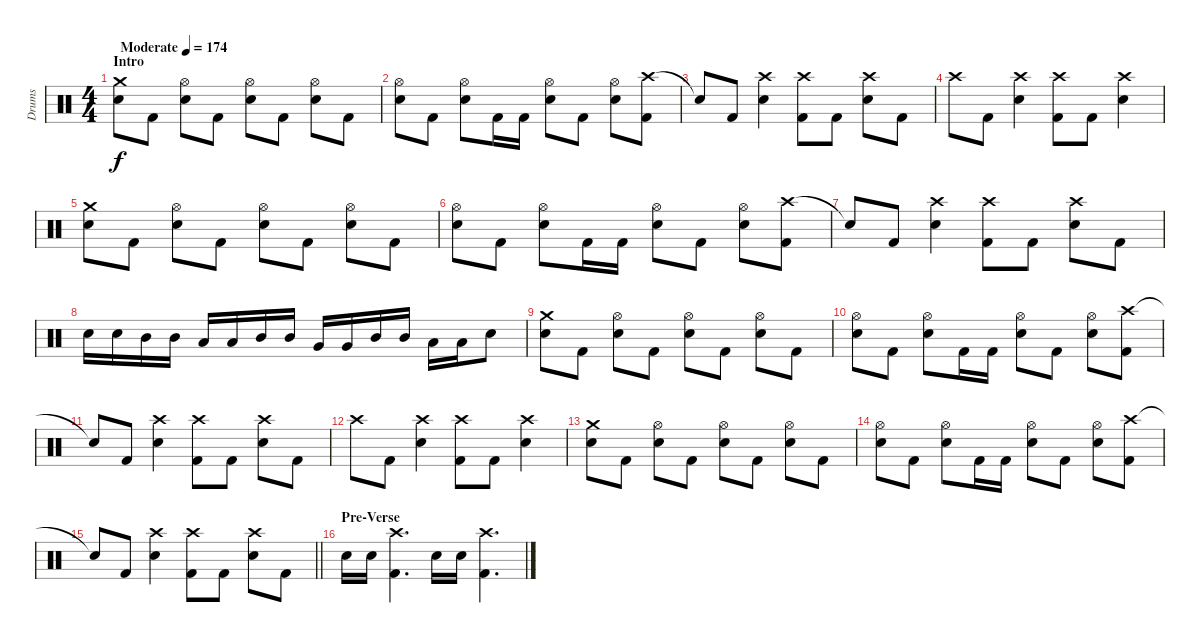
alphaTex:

\track ("Drums" "Drums") {instrument percussion}
\staff {score}
\articulation defaults
\ts (4 4)
\section ("" "Intro")
\tempo (174 "Moderate")
\clef neutral
\ks c
("Crash medium (hit)" "Electric Snare (hit)").8{dy f} "Kick (hit) 2".8 ("Hi-Hat (open)" "Electric Snare (hit)").8 "Kick (hit) 2".8 ("Hi-Hat (open)" "Electric Snare (hit)").8 "Kick (hit) 2".8 ("Hi-Hat (open)" "Electric Snare (hit)").8 "Kick (hit) 2".8 |
("Hi-Hat (open)" "Electric Snare (hit)").8 "Kick (hit) 2".8 ("Hi-Hat (open)" "Electric Snare (hit)").8 "Kick (hit) 2".16 "Kick (hit) 2".16 ("Hi-Hat (open)" "Electric Snare (hit)").8 "Kick (hit) 2".8 ("Hi-Hat (open)" "Electric Snare (hit)").8 ("Crash high (hit)" "Kick (hit) 2").8 |
"Snare (hit)"{t}.8 "Kick (hit) 2".8 ("Crash high (hit)" "Electric Snare (hit)").4 ("Crash high (hit)" "Kick (hit) 2").8 "Kick (hit) 2".8 ("Crash high (hit)" "Electric Snare (hit)").8 "Kick (hit) 2".8 |
"Crash high (hit)".8 "Kick (hit) 2".8 ("Crash high (hit)" "Electric Snare (hit)").4 ("Crash high (hit)" "Kick (hit) 2").8 "Kick (hit) 2".8 ("Crash high (hit)" "Electric Snare (hit)").4 |
("Crash medium (hit)" "Electric Snare (hit)").8 "Kick (hit) 2".8 ("Hi-Hat (open)" "Electric Snare (hit)").8 "Kick (hit) 2".8 ("Hi-Hat (open)" "Electric Snare (hit)").8 "Kick (hit) 2".8 ("Hi-Hat (open)" "Electric Snare (hit)").8 "Kick (hit) 2".8 |
("Hi-Hat (open)" "Electric Snare (hit)").8 "Kick (hit) 2".8 ("Hi-Hat (open)" "Electric Snare (hit)").8 "Kick (hit) 2".16 "Kick (hit) 2".16 ("Hi-Hat (open)" "Electric Snare (hit)").8 "Kick (hit) 2".8 ("Hi-Hat (open)" "Electric Snare (hit)").8 ("Crash high (hit)" "Kick (hit) 2").8 |
"Snare (hit)"{t}.8 "Kick (hit) 2".8 ("Crash high (hit)" "Electric Snare (hit)").4 ("Crash high (hit)" "Kick (hit) 2").8 "Kick (hit) 2".8 ("Crash high (hit)" "Electric Snare (hit)").8 "Kick (hit) 2".8 |
"Electric Snare (hit)".16 "Electric Snare (hit)".16 "Mid Tom (hit)".16 "Mid Tom (hit)".16 "Low Tom (hit)".16 "Low Tom (hit)".16 "Mid Tom (hit)".16 "Mid Tom (hit)".16 "Very Low Tom (hit)".16 "Very Low Tom (hit)".16 "Mid Tom (hit)".16 "Mid Tom (hit)".16 "Low Floor Tom (hit)".16 "Low Floor Tom (hit)".16 "Electric Snare (hit)".8 |
("Crash medium (hit)" "Electric Snare (hit)").8 "Kick (hit) 2".8 ("Hi-Hat (open)" "Electric Snare (hit)").8 "Kick (hit) 2".8 ("Hi-Hat (open)" "Electric Snare (hit)").8 "Kick (hit) 2".8 ("Hi-Hat (open)" "Electric Snare (hit)").8 "Kick (hit) 2".8 |
("Hi-Hat (open)" "Electric Snare (hit)").8 "Kick (hit) 2".8 ("Hi-Hat (open)" "Electric Snare (hit)").8 "Kick (hit) 2".16 "Kick (hit) 2".16 ("Hi-Hat (open)" "Electric Snare (hit)").8 "Kick (hit) 2".8 ("Hi-Hat (open)" "Electric Snare (hit)").8 ("Crash high (hit)" "Kick (hit) 2").8 |
"Snare (hit)"{t}.8 "Kick (hit) 2".8 ("Crash high (hit)" "Electric Snare (hit)").4 ("Crash high (hit)" "Kick (hit) 2").8 "Kick (hit) 2".8 ("Crash high (hit)" "Electric Snare (hit)").8 "Kick (hit) 2".8 |
"Crash high (hit)".8 "Kick (hit) 2".8 ("Crash high (hit)" "Electric Snare (hit)").4 ("Crash high (hit)" "Kick (hit) 2").8 "Kick (hit) 2".8 ("Crash high (hit)" "Electric Snare (hit)").4 |
("Crash medium (hit)" "Electric Snare (hit)").8 "Kick (hit) 2".8 ("Hi-Hat (open)" "Electric Snare (hit)").8 "Kick (hit) 2".8 ("Hi-Hat (open)" "Electric Snare (hit)").8 "Kick (hit) 2".8 ("Hi-Hat (open)" "Electric Snare (hit)").8 "Kick (hit) 2".8 |
("Hi-Hat (open)" "Electric Snare (hit)").8 "Kick (hit) 2".8 ("Hi-Hat (open)" "Electric Snare (hit)").8 "Kick (hit) 2".16 "Kick (hit) 2".16 ("Hi-Hat (open)" "Electric Snare (hit)").8 "Kick (hit) 2".8 ("Hi-Hat (open)" "Electric Snare (hit)").8 ("Crash high (hit)" "Kick (hit) 2").8 |
\barLineRight lightlight "Snare (hit)"{t}.8 "Kick (hit) 2".8
("Crash high (hit)" "Electric Snare (hit)").4 ("Crash high (hit)" "Kick (hit) 2").8 "Kick (hit) 2".8 ("Crash high (hit)" "Electric Snare (hit)").8 "Kick (hit) 2".8 |
\section ("" "Pre-Verse")
"Electric Snare (hit)".16 "Electric Snare (hit)".16 ("Crash high (hit)" "Kick (hit) 2").4{d} "Electric Snare (hit)".16 "Electric Snare (hit)".16 ("Crash high (hit)" "Kick (hit) 2").4{d}
